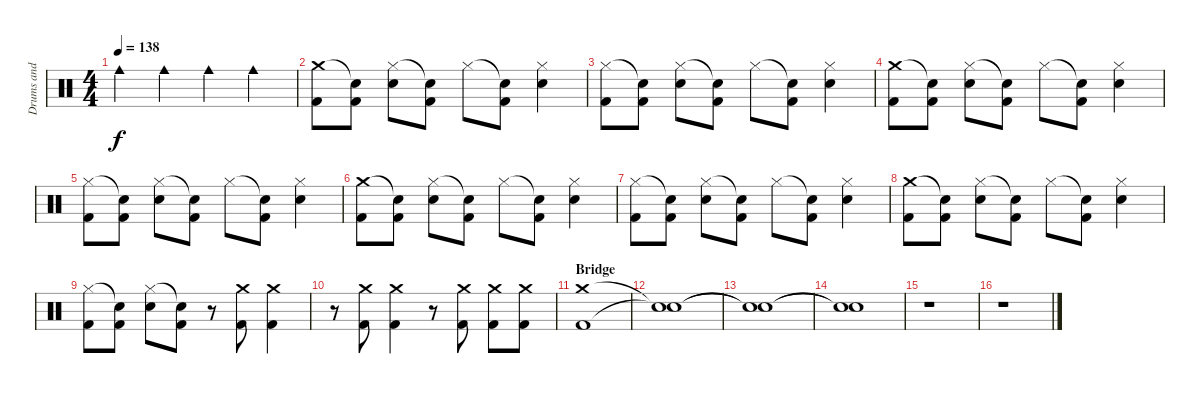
\track ("Drums and Percussion" "Drums and ") {instrument percussion}
\staff {score}
\articulation defaults
\ts (4 4)
\tempo 138
\clef neutral
\ks c "Cowbell medium (hit)".4{dy f} "Cowbell medium (hit)".4 "Cowbell medium (hit)".4 "Cowbell medium (hit)".4
|
("Crash medium (hit)" "Kick (hit) 2").8 ("Snare (hit)"{t} "Kick (hit) 2").8 ("Hi-Hat (closed)" "Electric Snare (hit)").8 ("Snare (hit)"{t} "Kick (hit) 2").8 "Hi-Hat (closed)".8 ("Snare (hit)"{t} "Kick (hit) 2").8 ("Hi-Hat (closed)" "Electric Snare (hit)").4 |
("Hi-Hat (closed)" "Kick (hit) 2").8 ("Snare (hit)"{t} "Kick (hit) 2").8 ("Hi-Hat (closed)" "Electric Snare (hit)").8 ("Snare (hit)"{t} "Kick (hit) 2").8 "Hi-Hat (closed)".8 ("Snare (hit)"{t} "Kick (hit) 2").8 ("Hi-Hat (closed)" "Electric Snare (hit)").4 |
("Crash medium (hit)" "Kick (hit) 2").8 ("Snare (hit)"{t} "Kick (hit) 2").8 ("Hi-Hat (closed)" "Electric Snare (hit)").8 ("Snare (hit)"{t} "Kick (hit) 2").8 "Hi-Hat (closed)".8 ("Snare (hit)"{t} "Kick (hit) 2").8 ("Hi-Hat (closed)" "Electric Snare (hit)").4 |
("Hi-Hat (closed)" "Kick (hit) 2").8 ("Snare (hit)"{t} "Kick (hit) 2").8 ("Hi-Hat (closed)" "Electric Snare (hit)").8 ("Snare (hit)"{t} "Kick (hit) 2").8 "Hi-Hat (closed)".8 ("Snare (hit)"{t} "Kick (hit) 2").8 ("Hi-Hat (closed)" "Electric Snare (hit)").4 |
("Crash medium (hit)" "Kick (hit) 2").8 ("Snare (hit)"{t} "Kick (hit) 2").8 ("Hi-Hat (closed)" "Electric Snare (hit)").8 ("Snare (hit)"{t} "Kick (hit) 2").8 "Hi-Hat (closed)".8 ("Snare (hit)"{t} "Kick (hit) 2").8 ("Hi-Hat (closed)" "Electric Snare (hit)").4 |
("Hi-Hat (closed)" "Kick (hit) 2").8 ("Snare (hit)"{t} "Kick (hit) 2").8 ("Hi-Hat (closed)" "Electric Snare (hit)").8 ("Snare (hit)"{t} "Kick (hit) 2").8 "Hi-Hat (closed)".8 ("Snare (hit)"{t} "Kick (hit) 2").8 ("Hi-Hat (closed)" "Electric Snare (hit)").4 |
("Crash medium (hit)" "Kick (hit) 2").8 ("Snare (hit)"{t} "Kick (hit) 2").8 ("Hi-Hat (closed)" "Electric Snare (hit)").8 ("Snare (hit)"{t} "Kick (hit) 2").8 "Hi-Hat (closed)".8 ("Snare (hit)"{t} "Kick (hit) 2").8 ("Hi-Hat (closed)" "Electric Snare (hit)").4 |
("Hi-Hat (closed)" "Kick (hit) 2").8 ("Snare (hit)"{t} "Kick (hit) 2").8 ("Hi-Hat (closed)" "Electric Snare (hit)").8 ("Snare (hit)"{t} "Kick (hit) 2").8 r.8 ("Crash medium (hit)" "Kick (hit) 2").8 ("Crash medium (hit)" "Kick (hit) 2").4 |
r.8 ("Crash medium (hit)" "Kick (hit) 2").8 ("Crash medium (hit)" "Kick (hit) 2").4 r.8 ("Crash medium (hit)" "Kick (hit) 2").8 ("Crash medium (hit)" "Kick (hit) 2").8 ("Crash medium (hit)" "Kick (hit) 2").8 |
\section ("" "Bridge")
("Crash medium (hit)" "Kick (hit) 2").1{volume 0} |
("Snare (hit)"{t} "Snare (hit)"{t}).1 |
("Snare (hit)"{t} "Snare (hit)"{t}).1 |
("Snare (hit)"{t} "Snare (hit)"{t}).1 |
r.1{volume 13} |
r.1
